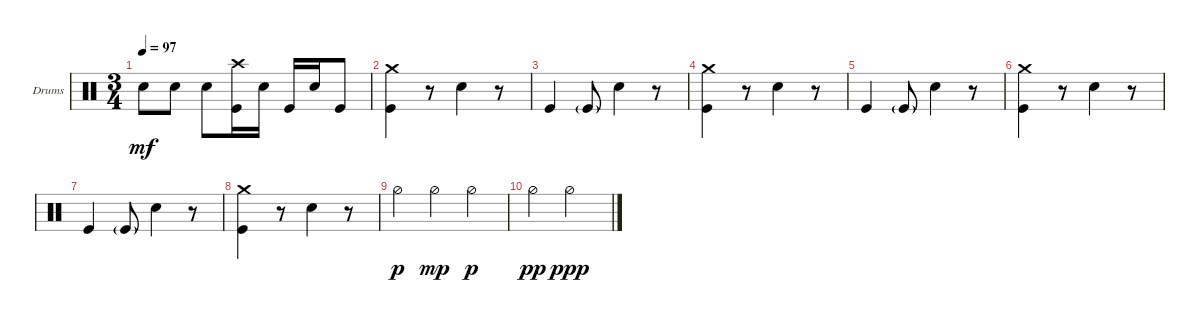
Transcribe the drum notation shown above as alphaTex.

\defaultSystemsLayout 4
\bracketExtendMode groupsimilarinstruments
\firstSystemTrackNameOrientation horizontal
\otherSystemsTrackNameOrientation horizontal
\track ("Е. Кулаков" "Drums") {instrument percussion}
\staff {score}
\articulation defaults
\ts (3 4)
\tempo 97
\clef neutral
\ks c "Snare (hit) 2".8{dy mf} "Snare (hit) 2".8 "Snare (hit) 2".8
("Kick (hit)" "Crash high (hit)").16 "Snare (hit) 2".16 "Kick (hit)".16 "Snare (hit) 2".16 "Kick (hit)".8 |
("Kick (hit)" "Crash medium (hit)").4 r.8 "Snare (hit) 2".4 r.8 |
"Kick (hit)".4 "Kick (hit)"{g}.8 "Snare (hit) 2".4 r.8 |
("Kick (hit)" "Crash medium (hit)").4 r.8 "Snare (hit) 2".4 r.8 |
"Kick (hit)".4 "Kick (hit)"{g}.8 "Snare (hit) 2".4 r.8 |
("Kick (hit)" "Crash medium (hit)").4 r.8 "Snare (hit) 2".4 r.8 |
"Kick (hit)".4 "Kick (hit)"{g}.8 "Snare (hit) 2".4 r.8 |
("Kick (hit)" "Crash medium (hit)").4 r.8 "Snare (hit) 2".4 r.8 |
"Hi-Hat (half)".4{dy p} "Hi-Hat (half)".4{dy mp} "Hi-Hat (half)".4{dy p} |
"Hi-Hat (half)".4{dy pp} "Hi-Hat (half)".2{dy ppp}
